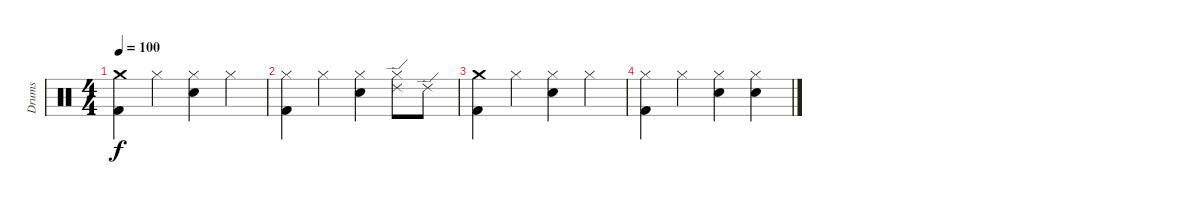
\track ("Drums" "Drums") {instrument percussion}
\staff {score}
\articulation defaults
\ts (4 4)
\tempo 100
\clef neutral
\ks c
("Crash medium (hit)" "Kick (hit) 2").4{dy f} "Hi-Hat (closed)".4 ("Hi-Hat (closed)" "Snare (hit) 2").4 "Hi-Hat (closed)".4 |
("Hi-Hat (closed)" "Kick (hit) 2").4 "Hi-Hat (closed)".4 ("Hi-Hat (closed)" "Snare (hit) 2").4 ("Hi-Hat (closed)" "Ride (edge) 2").8 "Ride (edge) 2".8 |
("Crash medium (hit)" "Kick (hit) 2").4 "Hi-Hat (closed)".4 ("Hi-Hat (closed)" "Snare (hit) 2").4 "Hi-Hat (closed)".4 |
("Hi-Hat (closed)" "Kick (hit) 2").4 "Hi-Hat (closed)".4 ("Hi-Hat (closed)" "Snare (hit) 2").4 ("Hi-Hat (closed)" "Snare (hit) 2").4
